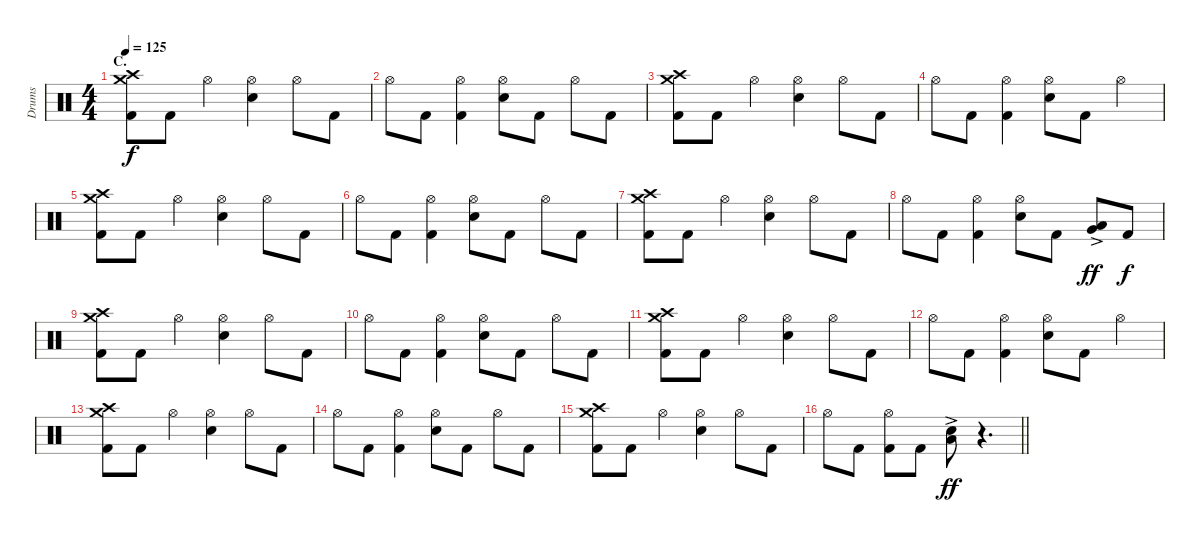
\track ("Drums" "Drums") {instrument percussion}
\staff {score}
\articulation defaults
\ts (4 4)
\section ("" "C.")
\tempo 125
\clef neutral
\ks c
("Crash medium (hit)" "Crash high (hit)" "Kick (hit) 2").8{dy f} "Kick (hit) 2".8 "Hi-Hat (open)".4 ("Hi-Hat (open)" "Electric Snare (hit)").4 "Hi-Hat (open)".8 "Kick (hit) 2".8 |
"Hi-Hat (open)".8 "Kick (hit) 2".8 ("Hi-Hat (open)" "Kick (hit) 2").4 ("Hi-Hat (open)" "Electric Snare (hit)").8 "Kick (hit) 2".8 "Hi-Hat (open)".8 "Kick (hit) 2".8 |
("Crash medium (hit)" "Crash high (hit)" "Kick (hit) 2").8 "Kick (hit) 2".8 "Hi-Hat (open)".4 ("Hi-Hat (open)" "Electric Snare (hit)").4 "Hi-Hat (open)".8 "Kick (hit) 2".8 |
"Hi-Hat (open)".8 "Kick (hit) 2".8 ("Hi-Hat (open)" "Kick (hit) 2").4 ("Hi-Hat (open)" "Electric Snare (hit)").8 "Kick (hit) 2".8 "Hi-Hat (open)".4 |
("Crash medium (hit)" "Crash high (hit)" "Kick (hit) 2").8 "Kick (hit) 2".8 "Hi-Hat (open)".4 ("Hi-Hat (open)" "Electric Snare (hit)").4 "Hi-Hat (open)".8 "Kick (hit) 2".8 |
"Hi-Hat (open)".8 "Kick (hit) 2".8 ("Hi-Hat (open)" "Kick (hit) 2").4 ("Hi-Hat (open)" "Electric Snare (hit)").8 "Kick (hit) 2".8 "Hi-Hat (open)".8 "Kick (hit) 2".8 |
("Crash medium (hit)" "Crash high (hit)" "Kick (hit) 2").8 "Kick (hit) 2".8 "Hi-Hat (open)".4 ("Hi-Hat (open)" "Electric Snare (hit)").4 "Hi-Hat (open)".8 "Kick (hit) 2".8 |
"Hi-Hat (open)".8 "Kick (hit) 2".8 ("Hi-Hat (open)" "Kick (hit) 2").4 ("Hi-Hat (open)" "Electric Snare (hit)").8 "Kick (hit) 2".8 ("Very Low Tom (hit)" "Low Floor Tom (hit)"{ac}).8{bu 120 dy ff} "Kick (hit) 2".8{dy f} |
("Crash medium (hit)" "Crash high (hit)" "Kick (hit) 2").8 "Kick (hit) 2".8 "Hi-Hat (open)".4 ("Hi-Hat (open)" "Electric Snare (hit)").4 "Hi-Hat (open)".8 "Kick (hit) 2".8 |
"Hi-Hat (open)".8 "Kick (hit) 2".8 ("Hi-Hat (open)" "Kick (hit) 2").4 ("Hi-Hat (open)" "Electric Snare (hit)").8 "Kick (hit) 2".8 "Hi-Hat (open)".8 "Kick (hit) 2".8 |
("Crash medium (hit)" "Crash high (hit)" "Kick (hit) 2").8 "Kick (hit) 2".8 "Hi-Hat (open)".4 ("Hi-Hat (open)" "Electric Snare (hit)").4 "Hi-Hat (open)".8 "Kick (hit) 2".8 |
"Hi-Hat (open)".8 "Kick (hit) 2".8 ("Hi-Hat (open)" "Kick (hit) 2").4 ("Hi-Hat (open)" "Electric Snare (hit)").8 "Kick (hit) 2".8 "Hi-Hat (open)".4 |
("Crash medium (hit)" "Crash high (hit)" "Kick (hit) 2").8 "Kick (hit) 2".8 "Hi-Hat (open)".4 ("Hi-Hat (open)" "Electric Snare (hit)").4 "Hi-Hat (open)".8 "Kick (hit) 2".8 |
"Hi-Hat (open)".8 "Kick (hit) 2".8 ("Hi-Hat (open)" "Kick (hit) 2").4 ("Hi-Hat (open)" "Electric Snare (hit)").8 "Kick (hit) 2".8 "Hi-Hat (open)".8 "Kick (hit) 2".8 |
("Crash medium (hit)" "Crash high (hit)" "Kick (hit) 2").8 "Kick (hit) 2".8 "Hi-Hat (open)".4 ("Hi-Hat (open)" "Electric Snare (hit)").4 "Hi-Hat (open)".8 "Kick (hit) 2".8 |
\barLineRight lightlight "Hi-Hat (open)".8 "Kick (hit) 2".8
("Hi-Hat (open)" "Kick (hit) 2").8 "Kick (hit) 2".8 ("Electric Snare (hit)" "Low Floor Tom (hit)"{ac}).8{bu 120 dy ff} r.4{d}
